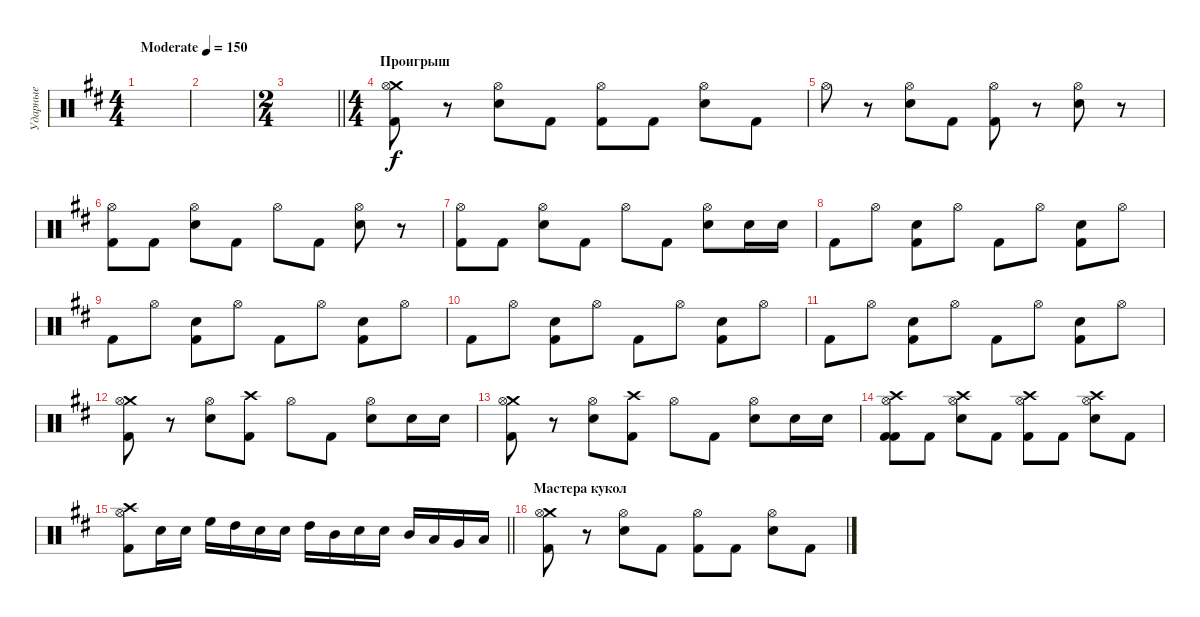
\track ("Ударные" "Ударные") {instrument percussion}
\staff {score}
\articulation defaults
\ts (4 4)
\section ("" "")
\tempo (150 "Moderate")
\clef neutral
\ks bminor
|
|
\ts (2 4)
\barLineRight lightlight
|
\ts (4 4)
\section ("" "Проигрыш")
("Crash medium (hit)" "Kick (hit) 2" "Hi-Hat (open)").8 r.8 ("Electric Snare (hit)" "Hi-Hat (open)").8 "Kick (hit) 2".8 ("Kick (hit) 2" "Hi-Hat (open)").8 "Kick (hit) 2".8 ("Electric Snare (hit)" "Hi-Hat (open)").8 "Kick (hit) 2".8 |
"Hi-Hat (open)".8 r.8 ("Electric Snare (hit)" "Hi-Hat (open)").8 "Kick (hit) 2".8 ("Kick (hit) 2" "Hi-Hat (open)").8 r.8 ("Electric Snare (hit)" "Hi-Hat (open)").8 r.8 |
("Kick (hit) 2" "Hi-Hat (open)").8 "Kick (hit) 2".8 ("Electric Snare (hit)" "Hi-Hat (open)").8 "Kick (hit) 2".8 "Hi-Hat (open)".8 "Kick (hit) 2".8 ("Electric Snare (hit)" "Hi-Hat (open)").8 r.8 |
("Kick (hit) 2" "Hi-Hat (open)").8 "Kick (hit) 2".8 ("Electric Snare (hit)" "Hi-Hat (open)").8 "Kick (hit) 2".8 "Hi-Hat (open)".8 "Kick (hit) 2".8 ("Electric Snare (hit)" "Hi-Hat (open)").8 "Electric Snare (hit)".16 "Electric Snare (hit)".16 |
"Kick (hit) 2".8 "Hi-Hat (open)".8 ("Electric Snare (hit)" "Kick (hit) 2").8 "Hi-Hat (open)".8 "Kick (hit) 2".8 "Hi-Hat (open)".8 ("Electric Snare (hit)" "Kick (hit) 2").8 "Hi-Hat (open)".8 |
"Kick (hit) 2".8 "Hi-Hat (open)".8 ("Electric Snare (hit)" "Kick (hit) 2").8 "Hi-Hat (open)".8 "Kick (hit) 2".8 "Hi-Hat (open)".8 ("Electric Snare (hit)" "Kick (hit) 2").8 "Hi-Hat (open)".8 |
"Kick (hit) 2".8 "Hi-Hat (open)".8 ("Electric Snare (hit)" "Kick (hit) 2").8 "Hi-Hat (open)".8 "Kick (hit) 2".8 "Hi-Hat (open)".8 ("Electric Snare (hit)" "Kick (hit) 2").8 "Hi-Hat (open)".8 |
"Kick (hit) 2".8 "Hi-Hat (open)".8 ("Electric Snare (hit)" "Kick (hit) 2").8 "Hi-Hat (open)".8 "Kick (hit) 2".8 "Hi-Hat (open)".8 ("Electric Snare (hit)" "Kick (hit) 2").8 "Hi-Hat (open)".8 |
("Crash medium (hit)" "Kick (hit) 2" "Hi-Hat (open)").8 r.8 ("Electric Snare (hit)" "Hi-Hat (open)").8 ("Crash high (hit)" "Kick (hit) 2").8 "Hi-Hat (open)".8 "Kick (hit) 2".8 ("Electric Snare (hit)" "Hi-Hat (open)").8 "Electric Snare (hit)".16 "Electric Snare (hit)".16 |
("Crash medium (hit)" "Kick (hit) 2" "Hi-Hat (open)").8 r.8 ("Electric Snare (hit)" "Hi-Hat (open)").8 ("Crash high (hit)" "Kick (hit) 2").8 "Hi-Hat (open)".8 "Kick (hit) 2".8 ("Electric Snare (hit)" "Hi-Hat (open)").8 "Electric Snare (hit)".16 "Electric Snare (hit)".16 |
("Crash high (hit)" "Kick (hit) 2" "Hi-Hat (open)" "Kick (hit) 2").8 "Kick (hit) 2".8 ("Crash high (hit)" "Hi-Hat (open)" "Electric Snare (hit)").8 "Kick (hit) 2".8 ("Crash high (hit)" "Hi-Hat (open)" "Kick (hit) 2").8 "Kick (hit) 2".8 ("Crash high (hit)" "Hi-Hat (open)" "Electric Snare (hit)").8 "Kick (hit) 2".8 |
\barLineRight lightlight
("Crash high (hit)" "Hi-Hat (open)" "Kick (hit) 2").8 "Electric Snare (hit)".16 "Electric Snare (hit)".16 "High Floor Tom (hit)".16 "High Tom (hit)".16 "Electric Snare (hit)".16 "Electric Snare (hit)".16 "High Tom (hit)".16 "Mid Tom (hit)".16 "Electric Snare (hit)".16 "Electric Snare (hit)".16 "Mid Tom (hit)".16 "Low Tom (hit)".16 "Very Low Tom (hit)".16 "Low Floor Tom (hit)".16 |
\section ("" "Мастера кукол")
("Crash medium (hit)" "Kick (hit) 2" "Hi-Hat (open)").8 r.8 ("Electric Snare (hit)" "Hi-Hat (open)").8 "Kick (hit) 2".8 ("Kick (hit) 2" "Hi-Hat (open)").8 "Kick (hit) 2".8 ("Electric Snare (hit)" "Hi-Hat (open)").8 "Kick (hit) 2".8
